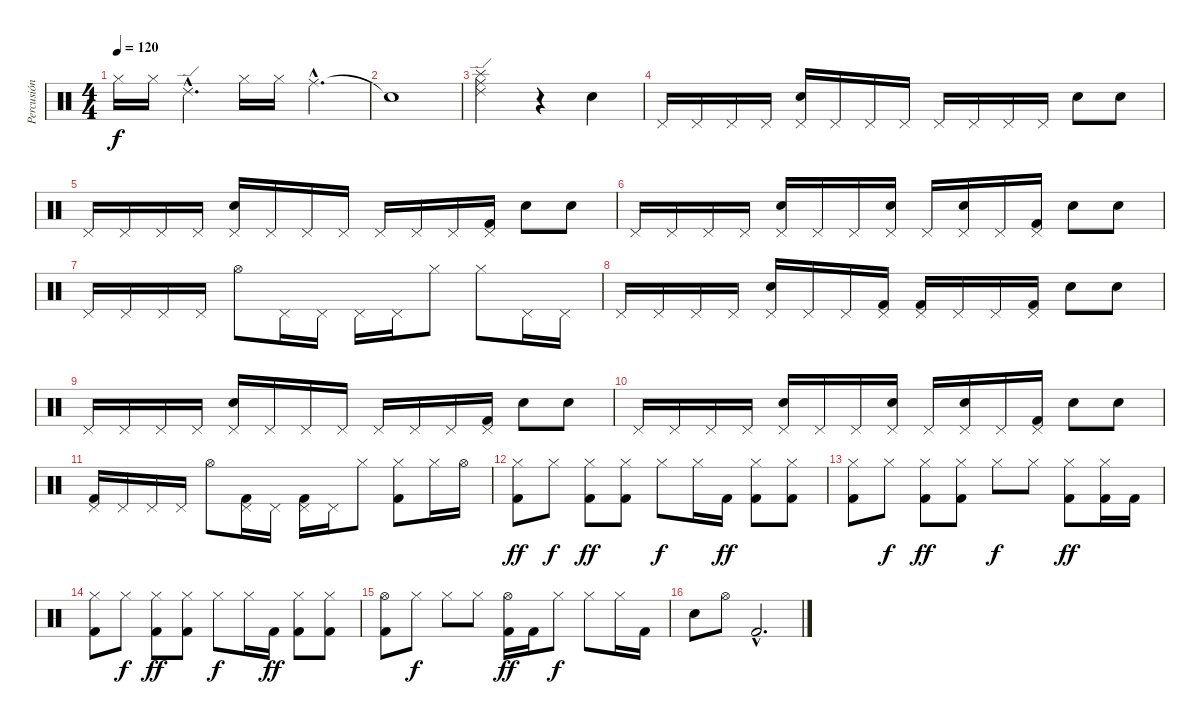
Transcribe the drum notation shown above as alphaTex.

\track ("Percusión" "Percusión") {instrument percussion}
\staff {score}
\articulation defaults
\ts (4 4)
\tempo 120
\clef neutral
\ks c "Hi-Hat (closed)".16{dy f} "Hi-Hat (closed)".16 "Ride (edge) 2"{hac}.4{d} "Hi-Hat (closed)".16 "Hi-Hat (closed)".16 "Ride (middle)"{hac}.4{d}
|
"Snare (hit)"{t}.1 |
("Splash (hit)" "Ride (middle)" "Ride (edge) 2").2 r.4 "Snare (hit) 2".4 |
"Pedal Hi-Hat (hit)".16 "Pedal Hi-Hat (hit)".16 "Pedal Hi-Hat (hit)".16 "Pedal Hi-Hat (hit)".16 ("Pedal Hi-Hat (hit)" "Snare (hit) 2").16 "Pedal Hi-Hat (hit)".16 "Pedal Hi-Hat (hit)".16 "Pedal Hi-Hat (hit)".16 "Pedal Hi-Hat (hit)".16 "Pedal Hi-Hat (hit)".16 "Pedal Hi-Hat (hit)".16 "Pedal Hi-Hat (hit)".16 "Snare (hit) 2".8 "Snare (hit) 2".8 |
"Pedal Hi-Hat (hit)".16 "Pedal Hi-Hat (hit)".16 "Pedal Hi-Hat (hit)".16 "Pedal Hi-Hat (hit)".16 ("Pedal Hi-Hat (hit)" "Snare (hit) 2").16 "Pedal Hi-Hat (hit)".16 "Pedal Hi-Hat (hit)".16 "Pedal Hi-Hat (hit)".16 "Pedal Hi-Hat (hit)".16 "Pedal Hi-Hat (hit)".16 "Pedal Hi-Hat (hit)".16 ("Pedal Hi-Hat (hit)" "Kick (hit) 2").16 "Snare (hit) 2".8 "Snare (hit) 2".8 |
"Pedal Hi-Hat (hit)".16 "Pedal Hi-Hat (hit)".16 "Pedal Hi-Hat (hit)".16 "Pedal Hi-Hat (hit)".16 ("Pedal Hi-Hat (hit)" "Snare (hit) 2").16 "Pedal Hi-Hat (hit)".16 "Pedal Hi-Hat (hit)".16 ("Pedal Hi-Hat (hit)" "Snare (hit) 2").16 "Pedal Hi-Hat (hit)".16 ("Pedal Hi-Hat (hit)" "Snare (hit) 2").16 "Pedal Hi-Hat (hit)".16 ("Pedal Hi-Hat (hit)" "Kick (hit) 2").16 "Snare (hit) 2".8 "Snare (hit) 2".8 |
"Pedal Hi-Hat (hit)".16 "Pedal Hi-Hat (hit)".16 "Pedal Hi-Hat (hit)".16 "Pedal Hi-Hat (hit)".16 "Hi-Hat (open)".8 "Pedal Hi-Hat (hit)".16 "Pedal Hi-Hat (hit)".16 "Pedal Hi-Hat (hit)".16 "Pedal Hi-Hat (hit)".16 "Hi-Hat (closed)".8 "Hi-Hat (closed)".8 "Pedal Hi-Hat (hit)".16 "Pedal Hi-Hat (hit)".16 |
"Pedal Hi-Hat (hit)".16 "Pedal Hi-Hat (hit)".16 "Pedal Hi-Hat (hit)".16 "Pedal Hi-Hat (hit)".16 ("Pedal Hi-Hat (hit)" "Snare (hit) 2").16 "Pedal Hi-Hat (hit)".16 "Pedal Hi-Hat (hit)".16 ("Pedal Hi-Hat (hit)" "Kick (hit) 2").16 ("Pedal Hi-Hat (hit)" "Kick (hit) 2").16 "Pedal Hi-Hat (hit)".16 "Pedal Hi-Hat (hit)".16 ("Pedal Hi-Hat (hit)" "Kick (hit) 2").16 "Snare (hit) 2".8 "Snare (hit) 2".8 |
"Pedal Hi-Hat (hit)".16 "Pedal Hi-Hat (hit)".16 "Pedal Hi-Hat (hit)".16 "Pedal Hi-Hat (hit)".16 ("Pedal Hi-Hat (hit)" "Snare (hit) 2").16 "Pedal Hi-Hat (hit)".16 "Pedal Hi-Hat (hit)".16 "Pedal Hi-Hat (hit)".16 "Pedal Hi-Hat (hit)".16 "Pedal Hi-Hat (hit)".16 "Pedal Hi-Hat (hit)".16 ("Pedal Hi-Hat (hit)" "Kick (hit) 2").16 "Snare (hit) 2".8 "Snare (hit) 2".8 |
"Pedal Hi-Hat (hit)".16 "Pedal Hi-Hat (hit)".16 "Pedal Hi-Hat (hit)".16 "Pedal Hi-Hat (hit)".16 ("Pedal Hi-Hat (hit)" "Snare (hit) 2").16 "Pedal Hi-Hat (hit)".16 "Pedal Hi-Hat (hit)".16 ("Pedal Hi-Hat (hit)" "Snare (hit) 2").16 "Pedal Hi-Hat (hit)".16 ("Pedal Hi-Hat (hit)" "Snare (hit) 2").16 "Pedal Hi-Hat (hit)".16 ("Pedal Hi-Hat (hit)" "Kick (hit) 2").16 "Snare (hit) 2".8 "Snare (hit) 2".8 |
("Pedal Hi-Hat (hit)" "Kick (hit) 2").16 "Pedal Hi-Hat (hit)".16 "Pedal Hi-Hat (hit)".16 "Pedal Hi-Hat (hit)".16 "Hi-Hat (open)".8 ("Pedal Hi-Hat (hit)" "Kick (hit) 2").16 "Pedal Hi-Hat (hit)".16 ("Pedal Hi-Hat (hit)" "Kick (hit) 2").16 "Pedal Hi-Hat (hit)".16 "Hi-Hat (closed)".8 ("Hi-Hat (closed)" "Kick (hit) 2").8 "Hi-Hat (closed)".16 "Hi-Hat (open)".16 |
("Hi-Hat (closed)" "Kick (hit) 2").8{dy ff} "Hi-Hat (closed)".8{dy f} ("Hi-Hat (closed)" "Kick (hit) 2").8{dy ff} ("Hi-Hat (closed)" "Kick (hit) 2").8 "Hi-Hat (closed)".8{dy f} "Hi-Hat (closed)".16 "Kick (hit) 2".16{dy ff} ("Hi-Hat (closed)" "Kick (hit) 2").8 ("Hi-Hat (closed)" "Kick (hit) 2").8 |
("Hi-Hat (closed)" "Kick (hit) 2").8 "Hi-Hat (closed)".8{dy f} ("Hi-Hat (closed)" "Kick (hit) 2").8{dy ff} ("Hi-Hat (closed)" "Kick (hit) 2").8 "Hi-Hat (closed)".8{dy f} "Hi-Hat (closed)".8 ("Hi-Hat (closed)" "Kick (hit) 2").8{dy ff} ("Hi-Hat (closed)" "Kick (hit) 2").16 "Kick (hit) 2".16 |
("Hi-Hat (closed)" "Kick (hit) 2").8 "Hi-Hat (closed)".8{dy f} ("Hi-Hat (closed)" "Kick (hit) 2").8{dy ff} ("Hi-Hat (closed)" "Kick (hit) 2").8 "Hi-Hat (closed)".8{dy f} "Hi-Hat (closed)".16 "Kick (hit) 2".16{dy ff} ("Hi-Hat (closed)" "Kick (hit) 2").8 ("Hi-Hat (closed)" "Kick (hit) 2").8 |
("Hi-Hat (open)" "Kick (hit) 2").8 "Hi-Hat (closed)".8{dy f} "Hi-Hat (closed)".8 "Hi-Hat (closed)".8 ("Hi-Hat (open)" "Kick (hit) 2").16{dy ff} "Kick (hit) 2".16 "Hi-Hat (closed)".8{dy f} "Hi-Hat (closed)".8 "Hi-Hat (closed)".16 "Kick (hit) 2".16 |
"Snare (hit) 2".8 "Hi-Hat (open)".8 "Kick (hit) 2"{hac}.2{d}
